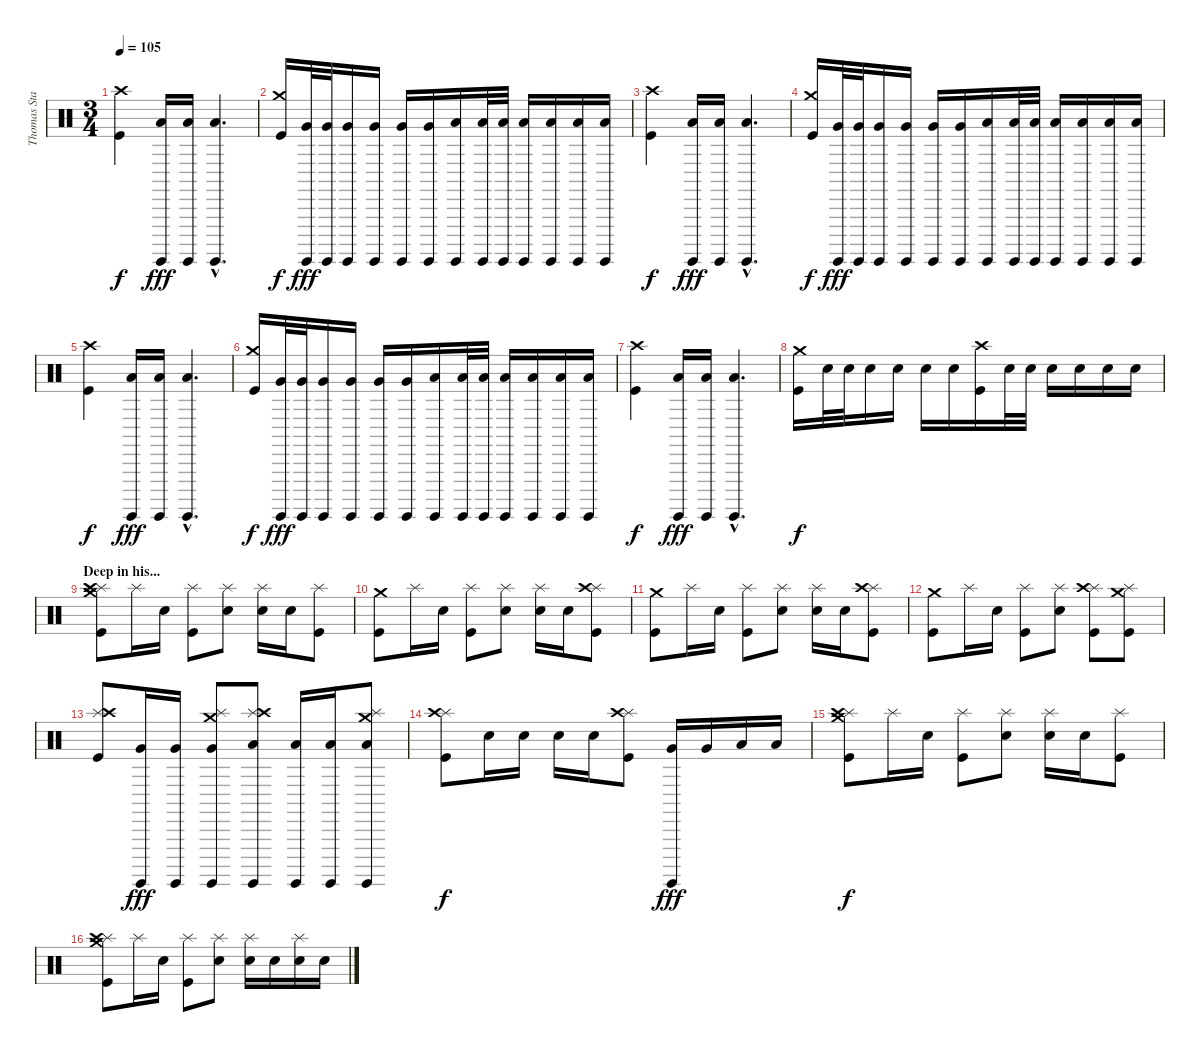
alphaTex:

\track ("Thomas Stauch" "Thomas Sta") {instrument percussion}
\staff {score}
\articulation defaults
\ts (3 4)
\tempo 105
\clef neutral
\ks c
("Crash high (hit)" "Kick (hit)").4{dy f} ("Surdo (hit)" "Low Floor Tom (hit)").16{dy fff} ("Surdo (hit)" "Low Floor Tom (hit)").16 ("Surdo (hit)"{hac} "Low Floor Tom (hit)"{hac}).4{d} |
("Crash medium (hit)" "Kick (hit)").16{dy f} ("Surdo (hit)" "Very Low Tom (hit)").32{dy fff} ("Surdo (hit)" "Very Low Tom (hit)").32 ("Surdo (hit)" "Very Low Tom (hit)").16 ("Surdo (hit)" "Very Low Tom (hit)").16 ("Surdo (hit)" "Very Low Tom (hit)").16 ("Surdo (hit)" "Very Low Tom (hit)").16 ("Surdo (hit)" "Low Floor Tom (hit)").16 ("Surdo (hit)" "Low Floor Tom (hit)").32 ("Surdo (hit)" "Low Floor Tom (hit)").32 ("Surdo (hit)" "Low Floor Tom (hit)").16 ("Surdo (hit)" "Low Floor Tom (hit)").16 ("Surdo (hit)" "Low Floor Tom (hit)").16 ("Surdo (hit)" "Low Floor Tom (hit)").16 |
("Crash high (hit)" "Kick (hit)").4{dy f} ("Surdo (hit)" "Low Floor Tom (hit)").16{dy fff} ("Surdo (hit)" "Low Floor Tom (hit)").16 ("Surdo (hit)"{hac} "Low Floor Tom (hit)"{hac}).4{d} |
("Crash medium (hit)" "Kick (hit)").16{dy f} ("Surdo (hit)" "Very Low Tom (hit)").32{dy fff} ("Surdo (hit)" "Very Low Tom (hit)").32 ("Surdo (hit)" "Very Low Tom (hit)").16 ("Surdo (hit)" "Very Low Tom (hit)").16 ("Surdo (hit)" "Very Low Tom (hit)").16 ("Surdo (hit)" "Very Low Tom (hit)").16 ("Surdo (hit)" "Low Floor Tom (hit)").16 ("Surdo (hit)" "Low Floor Tom (hit)").32 ("Surdo (hit)" "Low Floor Tom (hit)").32 ("Surdo (hit)" "Low Floor Tom (hit)").16 ("Surdo (hit)" "Low Floor Tom (hit)").16 ("Surdo (hit)" "Low Floor Tom (hit)").16 ("Surdo (hit)" "Low Floor Tom (hit)").16 |
("Crash high (hit)" "Kick (hit)").4{dy f} ("Surdo (hit)" "Low Floor Tom (hit)").16{dy fff} ("Surdo (hit)" "Low Floor Tom (hit)").16 ("Surdo (hit)"{hac} "Low Floor Tom (hit)"{hac}).4{d} |
("Crash medium (hit)" "Kick (hit)").16{dy f} ("Surdo (hit)" "Very Low Tom (hit)").32{dy fff} ("Surdo (hit)" "Very Low Tom (hit)").32 ("Surdo (hit)" "Very Low Tom (hit)").16 ("Surdo (hit)" "Very Low Tom (hit)").16 ("Surdo (hit)" "Very Low Tom (hit)").16 ("Surdo (hit)" "Very Low Tom (hit)").16 ("Surdo (hit)" "Low Floor Tom (hit)").16 ("Surdo (hit)" "Low Floor Tom (hit)").32 ("Surdo (hit)" "Low Floor Tom (hit)").32 ("Surdo (hit)" "Low Floor Tom (hit)").16 ("Surdo (hit)" "Low Floor Tom (hit)").16 ("Surdo (hit)" "Low Floor Tom (hit)").16 ("Surdo (hit)" "Low Floor Tom (hit)").16 |
("Crash high (hit)" "Kick (hit)").4{dy f} ("Surdo (hit)" "Low Floor Tom (hit)").16{dy fff} ("Surdo (hit)" "Low Floor Tom (hit)").16 ("Surdo (hit)"{hac} "Low Floor Tom (hit)"{hac}).4{d} |
("Crash medium (hit)" "Kick (hit)").16{dy f} "Electric Snare (hit)".32 "Electric Snare (hit)".32 "Electric Snare (hit)".16 "Electric Snare (hit)".16 "Electric Snare (hit)".16 "Electric Snare (hit)".16 ("Crash high (hit)" "Kick (hit)").16 "Electric Snare (hit)".32 "Electric Snare (hit)".32 "Electric Snare (hit)".16 "Electric Snare (hit)".16 "Electric Snare (hit)".16 "Electric Snare (hit)".16 |
\section ("" "Deep in his...")
("Crash medium (hit)" "Splash (hit)" "Crash high (hit)" "Kick (hit)").8 "Splash (hit)".16 "Electric Snare (hit)".16 ("Splash (hit)" "Kick (hit)").8 ("Splash (hit)" "Electric Snare (hit)").8 ("Splash (hit)" "Electric Snare (hit)").16 "Electric Snare (hit)".16 ("Splash (hit)" "Kick (hit)").8 |
("Crash medium (hit)" "Kick (hit)").8 "Splash (hit)".16 "Electric Snare (hit)".16 ("Splash (hit)" "Kick (hit)").8 ("Splash (hit)" "Electric Snare (hit)").8 ("Splash (hit)" "Electric Snare (hit)").16 "Electric Snare (hit)".16 ("Splash (hit)" "Crash high (hit)" "Kick (hit)").8 |
("Crash medium (hit)" "Kick (hit)").8 "Splash (hit)".16 "Electric Snare (hit)".16 ("Splash (hit)" "Kick (hit)").8 ("Splash (hit)" "Electric Snare (hit)").8 ("Splash (hit)" "Electric Snare (hit)").16 "Electric Snare (hit)".16 ("Splash (hit)" "Crash high (hit)" "Kick (hit)").8 |
("Crash medium (hit)" "Kick (hit)").8 "Splash (hit)".16 "Electric Snare (hit)".16 ("Splash (hit)" "Kick (hit)").8 ("Splash (hit)" "Electric Snare (hit)").8 ("Splash (hit)" "Crash high (hit)" "Kick (hit)").8 ("Crash medium (hit)" "Splash (hit)" "Kick (hit)").8 |
("Splash (hit)" "Crash high (hit)" "Kick (hit)").8 ("Surdo (hit)" "Very Low Tom (hit)").16{dy fff} ("Surdo (hit)" "Very Low Tom (hit)").16 ("Crash medium (hit)" "Splash (hit)" "Surdo (hit)" "Very Low Tom (hit)").8 ("Splash (hit)" "Crash high (hit)" "Surdo (hit)" "Low Floor Tom (hit)").8 ("Surdo (hit)" "Low Floor Tom (hit)").16 ("Surdo (hit)" "Low Floor Tom (hit)").16 ("Crash medium (hit)" "Splash (hit)" "Surdo (hit)" "Low Floor Tom (hit)").8 |
("Splash (hit)" "Crash high (hit)" "Kick (hit)").8{dy f} "Electric Snare (hit)".16 "Electric Snare (hit)".16 "Electric Snare (hit)".16 "Electric Snare (hit)".16 ("Splash (hit)" "Crash high (hit)" "Kick (hit)").8 ("Surdo (hit)" "Very Low Tom (hit)").16{dy fff} "Very Low Tom (hit)".16 "Low Floor Tom (hit)".16 "Low Floor Tom (hit)".16 |
("Crash medium (hit)" "Splash (hit)" "Crash high (hit)" "Kick (hit)").8{dy f} "Splash (hit)".16 "Electric Snare (hit)".16 ("Splash (hit)" "Kick (hit)").8 ("Splash (hit)" "Electric Snare (hit)").8 ("Splash (hit)" "Electric Snare (hit)").16 "Electric Snare (hit)".16 ("Splash (hit)" "Kick (hit)").8 |
("Crash medium (hit)" "Splash (hit)" "Crash high (hit)" "Kick (hit)").8 "Splash (hit)".16 "Electric Snare (hit)".16 ("Splash (hit)" "Kick (hit)").8 ("Splash (hit)" "Electric Snare (hit)").8 ("Splash (hit)" "Electric Snare (hit)").16 "Electric Snare (hit)".16 ("Splash (hit)" "Electric Snare (hit)").16 "Electric Snare (hit)".16
